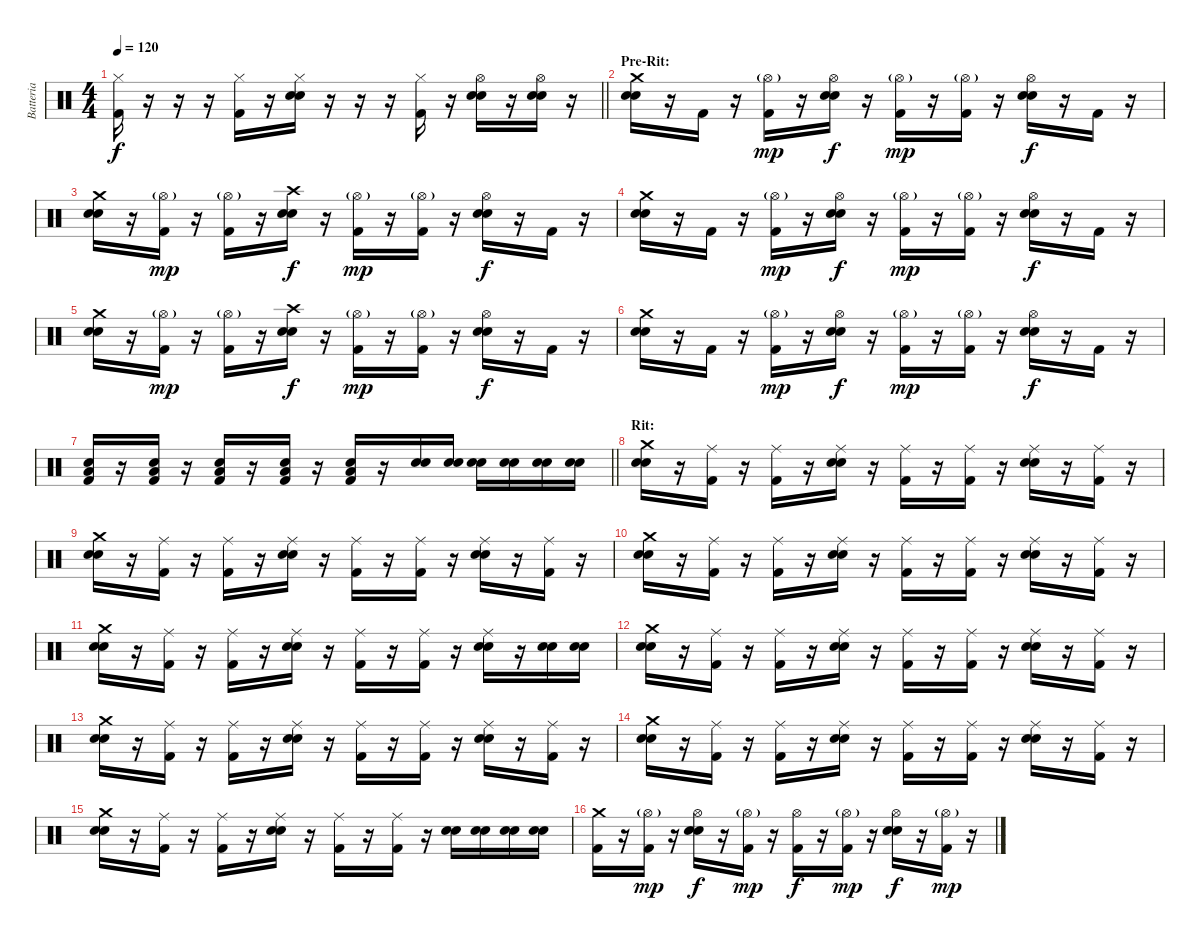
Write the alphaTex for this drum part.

\track ("Batteria" "Batteria") {instrument percussion}
\staff {score}
\articulation defaults
\ts (4 4)
\tempo 120
\clef neutral
\barLineRight lightlight
\ks c
("Kick (hit) 2" "Hi-Hat (closed)").16{dy f} r.16 r.16 r.16 ("Kick (hit) 2" "Hi-Hat (closed)").16 r.16 ("Snare (hit) 2" "Snare (hit) 2" "Hi-Hat (closed)").16 r.16 r.16 r.16 ("Kick (hit) 2" "Hi-Hat (closed)").16 r.16 ("Snare (hit) 2" "Snare (hit) 2" "Hi-Hat (open)").16 r.16 ("Snare (hit) 2" "Snare (hit) 2" "Hi-Hat (open)").16 r.16 |
\section ("" "Pre-Rit:")
("Snare (hit) 2" "Snare (hit) 2" "Crash medium (hit)").16 r.16 "Kick (hit) 2".16 r.16 ("Kick (hit) 2" "Hi-Hat (open)"{g}).16{dy mp} r.16 ("Snare (hit) 2" "Snare (hit) 2" "Hi-Hat (open)").16{dy f} r.16 ("Kick (hit) 2" "Hi-Hat (open)"{g}).16{dy mp} r.16 ("Kick (hit) 2" "Hi-Hat (open)"{g}).16 r.16 ("Snare (hit) 2" "Snare (hit) 2" "Hi-Hat (open)").16{dy f} r.16 "Kick (hit) 2".16 r.16 |
("Snare (hit) 2" "Snare (hit) 2" "Crash medium (hit)").16 r.16 ("Kick (hit) 2" "Hi-Hat (open)"{g}).16{dy mp} r.16 ("Kick (hit) 2" "Hi-Hat (open)"{g}).16 r.16 ("Snare (hit) 2" "Snare (hit) 2" "Crash high (hit)").16{dy f} r.16 ("Kick (hit) 2" "Hi-Hat (open)"{g}).16{dy mp} r.16 ("Kick (hit) 2" "Hi-Hat (open)"{g}).16 r.16 ("Snare (hit) 2" "Snare (hit) 2" "Hi-Hat (open)").16{dy f} r.16 "Kick (hit) 2".16 r.16 |
("Snare (hit) 2" "Snare (hit) 2" "Crash medium (hit)").16 r.16 "Kick (hit) 2".16 r.16 ("Kick (hit) 2" "Hi-Hat (open)"{g}).16{dy mp} r.16 ("Snare (hit) 2" "Snare (hit) 2" "Hi-Hat (open)").16{dy f} r.16 ("Kick (hit) 2" "Hi-Hat (open)"{g}).16{dy mp} r.16 ("Kick (hit) 2" "Hi-Hat (open)"{g}).16 r.16 ("Snare (hit) 2" "Snare (hit) 2" "Hi-Hat (open)").16{dy f} r.16 "Kick (hit) 2".16 r.16 |
("Snare (hit) 2" "Snare (hit) 2" "Crash medium (hit)").16 r.16 ("Kick (hit) 2" "Hi-Hat (open)"{g}).16{dy mp} r.16 ("Kick (hit) 2" "Hi-Hat (open)"{g}).16 r.16 ("Snare (hit) 2" "Snare (hit) 2" "Crash high (hit)").16{dy f} r.16 ("Kick (hit) 2" "Hi-Hat (open)"{g}).16{dy mp} r.16 ("Kick (hit) 2" "Hi-Hat (open)"{g}).16 r.16 ("Snare (hit) 2" "Snare (hit) 2" "Hi-Hat (open)").16{dy f} r.16 "Kick (hit) 2".16 r.16 |
("Snare (hit) 2" "Snare (hit) 2" "Crash medium (hit)").16 r.16 "Kick (hit) 2".16 r.16 ("Kick (hit) 2" "Hi-Hat (open)"{g}).16{dy mp} r.16 ("Snare (hit) 2" "Snare (hit) 2" "Hi-Hat (open)").16{dy f} r.16 ("Kick (hit) 2" "Hi-Hat (open)"{g}).16{dy mp} r.16 ("Kick (hit) 2" "Hi-Hat (open)"{g}).16 r.16 ("Snare (hit) 2" "Snare (hit) 2" "Hi-Hat (open)").16{dy f} r.16 "Kick (hit) 2".16 r.16 |
\barLineRight lightlight
("Kick (hit) 2" "Snare (hit) 2" "Low Floor Tom (hit)").16 r.16 ("Kick (hit) 2" "Snare (hit) 2" "Low Floor Tom (hit)").16 r.16 ("Kick (hit) 2" "Snare (hit) 2" "Low Floor Tom (hit)").16 r.16 ("Kick (hit) 2" "Snare (hit) 2" "Low Floor Tom (hit)").16 r.16 ("Kick (hit) 2" "Snare (hit) 2" "Low Floor Tom (hit)").16 r.16 ("Snare (hit) 2" "Snare (hit) 2").16 ("Snare (hit) 2" "Snare (hit) 2").16 ("Snare (hit) 2" "Snare (hit) 2").16 ("Snare (hit) 2" "Snare (hit) 2").16 ("Snare (hit) 2" "Snare (hit) 2").16 ("Snare (hit) 2" "Snare (hit) 2").16 |
\section ("" "Rit:")
("Snare (hit) 2" "Snare (hit) 2" "Crash medium (hit)").16 r.16 ("Kick (hit) 2" "Ride (middle)").16 r.16 ("Kick (hit) 2" "Ride (middle)").16 r.16 ("Snare (hit) 2" "Snare (hit) 2" "Ride (middle)").16 r.16 ("Kick (hit) 2" "Ride (middle)").16 r.16 ("Kick (hit) 2" "Ride (middle)").16 r.16 ("Snare (hit) 2" "Snare (hit) 2" "Ride (middle)").16 r.16 ("Kick (hit) 2" "Ride (middle)").16 r.16 |
("Snare (hit) 2" "Snare (hit) 2" "Crash medium (hit)").16 r.16 ("Kick (hit) 2" "Ride (middle)").16 r.16 ("Kick (hit) 2" "Ride (middle)").16 r.16 ("Snare (hit) 2" "Snare (hit) 2" "Ride (middle)").16 r.16 ("Kick (hit) 2" "Ride (middle)").16 r.16 ("Kick (hit) 2" "Ride (middle)").16 r.16 ("Snare (hit) 2" "Snare (hit) 2" "Ride (middle)").16 r.16 ("Kick (hit) 2" "Ride (middle)").16 r.16 |
("Snare (hit) 2" "Snare (hit) 2" "Crash medium (hit)").16 r.16 ("Kick (hit) 2" "Ride (middle)").16 r.16 ("Kick (hit) 2" "Ride (middle)").16 r.16 ("Snare (hit) 2" "Snare (hit) 2" "Ride (middle)").16 r.16 ("Kick (hit) 2" "Ride (middle)").16 r.16 ("Kick (hit) 2" "Ride (middle)").16 r.16 ("Snare (hit) 2" "Snare (hit) 2" "Ride (middle)").16 r.16 ("Kick (hit) 2" "Ride (middle)").16 r.16 |
("Snare (hit) 2" "Snare (hit) 2" "Crash medium (hit)").16 r.16 ("Kick (hit) 2" "Ride (middle)").16 r.16 ("Kick (hit) 2" "Ride (middle)").16 r.16 ("Snare (hit) 2" "Snare (hit) 2" "Ride (middle)").16 r.16 ("Kick (hit) 2" "Ride (middle)").16 r.16 ("Kick (hit) 2" "Ride (middle)").16 r.16 ("Snare (hit) 2" "Snare (hit) 2" "Ride (middle)").16 r.16 ("Snare (hit) 2" "Snare (hit) 2").16 ("Snare (hit) 2" "Snare (hit) 2").16 |
("Snare (hit) 2" "Snare (hit) 2" "Crash medium (hit)").16 r.16 ("Kick (hit) 2" "Ride (middle)").16 r.16 ("Kick (hit) 2" "Ride (middle)").16 r.16 ("Snare (hit) 2" "Snare (hit) 2" "Ride (middle)").16 r.16 ("Kick (hit) 2" "Ride (middle)").16 r.16 ("Kick (hit) 2" "Ride (middle)").16 r.16 ("Snare (hit) 2" "Snare (hit) 2" "Ride (middle)").16 r.16 ("Kick (hit) 2" "Ride (middle)").16 r.16 |
("Snare (hit) 2" "Snare (hit) 2" "Crash medium (hit)").16 r.16 ("Kick (hit) 2" "Ride (middle)").16 r.16 ("Kick (hit) 2" "Ride (middle)").16 r.16 ("Snare (hit) 2" "Snare (hit) 2" "Ride (middle)").16 r.16 ("Kick (hit) 2" "Ride (middle)").16 r.16 ("Kick (hit) 2" "Ride (middle)").16 r.16 ("Snare (hit) 2" "Snare (hit) 2" "Ride (middle)").16 r.16 ("Kick (hit) 2" "Ride (middle)").16 r.16 |
("Snare (hit) 2" "Snare (hit) 2" "Crash medium (hit)").16 r.16 ("Kick (hit) 2" "Ride (middle)").16 r.16 ("Kick (hit) 2" "Ride (middle)").16 r.16 ("Snare (hit) 2" "Snare (hit) 2" "Ride (middle)").16 r.16 ("Kick (hit) 2" "Ride (middle)").16 r.16 ("Kick (hit) 2" "Ride (middle)").16 r.16 ("Snare (hit) 2" "Snare (hit) 2" "Ride (middle)").16 r.16 ("Kick (hit) 2" "Ride (middle)").16 r.16 |
("Snare (hit) 2" "Snare (hit) 2" "Crash medium (hit)").16 r.16 ("Kick (hit) 2" "Ride (middle)").16 r.16 ("Kick (hit) 2" "Ride (middle)").16 r.16 ("Snare (hit) 2" "Snare (hit) 2" "Ride (middle)").16 r.16 ("Kick (hit) 2" "Ride (middle)").16 r.16 ("Kick (hit) 2" "Ride (middle)").16 r.16 ("Snare (hit) 2" "Snare (hit) 2").16 ("Snare (hit) 2" "Snare (hit) 2").16 ("Snare (hit) 2" "Snare (hit) 2").16 ("Snare (hit) 2" "Snare (hit) 2").16 |
("Kick (hit) 2" "Crash medium (hit)").16 r.16 ("Kick (hit) 2" "Hi-Hat (open)"{g}).16{dy mp} r.16 ("Snare (hit) 2" "Snare (hit) 2" "Hi-Hat (open)").16{dy f} r.16 ("Kick (hit) 2" "Hi-Hat (open)"{g}).16{dy mp} r.16 ("Kick (hit) 2" "Hi-Hat (open)").16{dy f} r.16 ("Kick (hit) 2" "Hi-Hat (open)"{g}).16{dy mp} r.16 ("Snare (hit) 2" "Snare (hit) 2" "Hi-Hat (open)").16{dy f} r.16 ("Kick (hit) 2" "Hi-Hat (open)"{g}).16{dy mp} r.16
